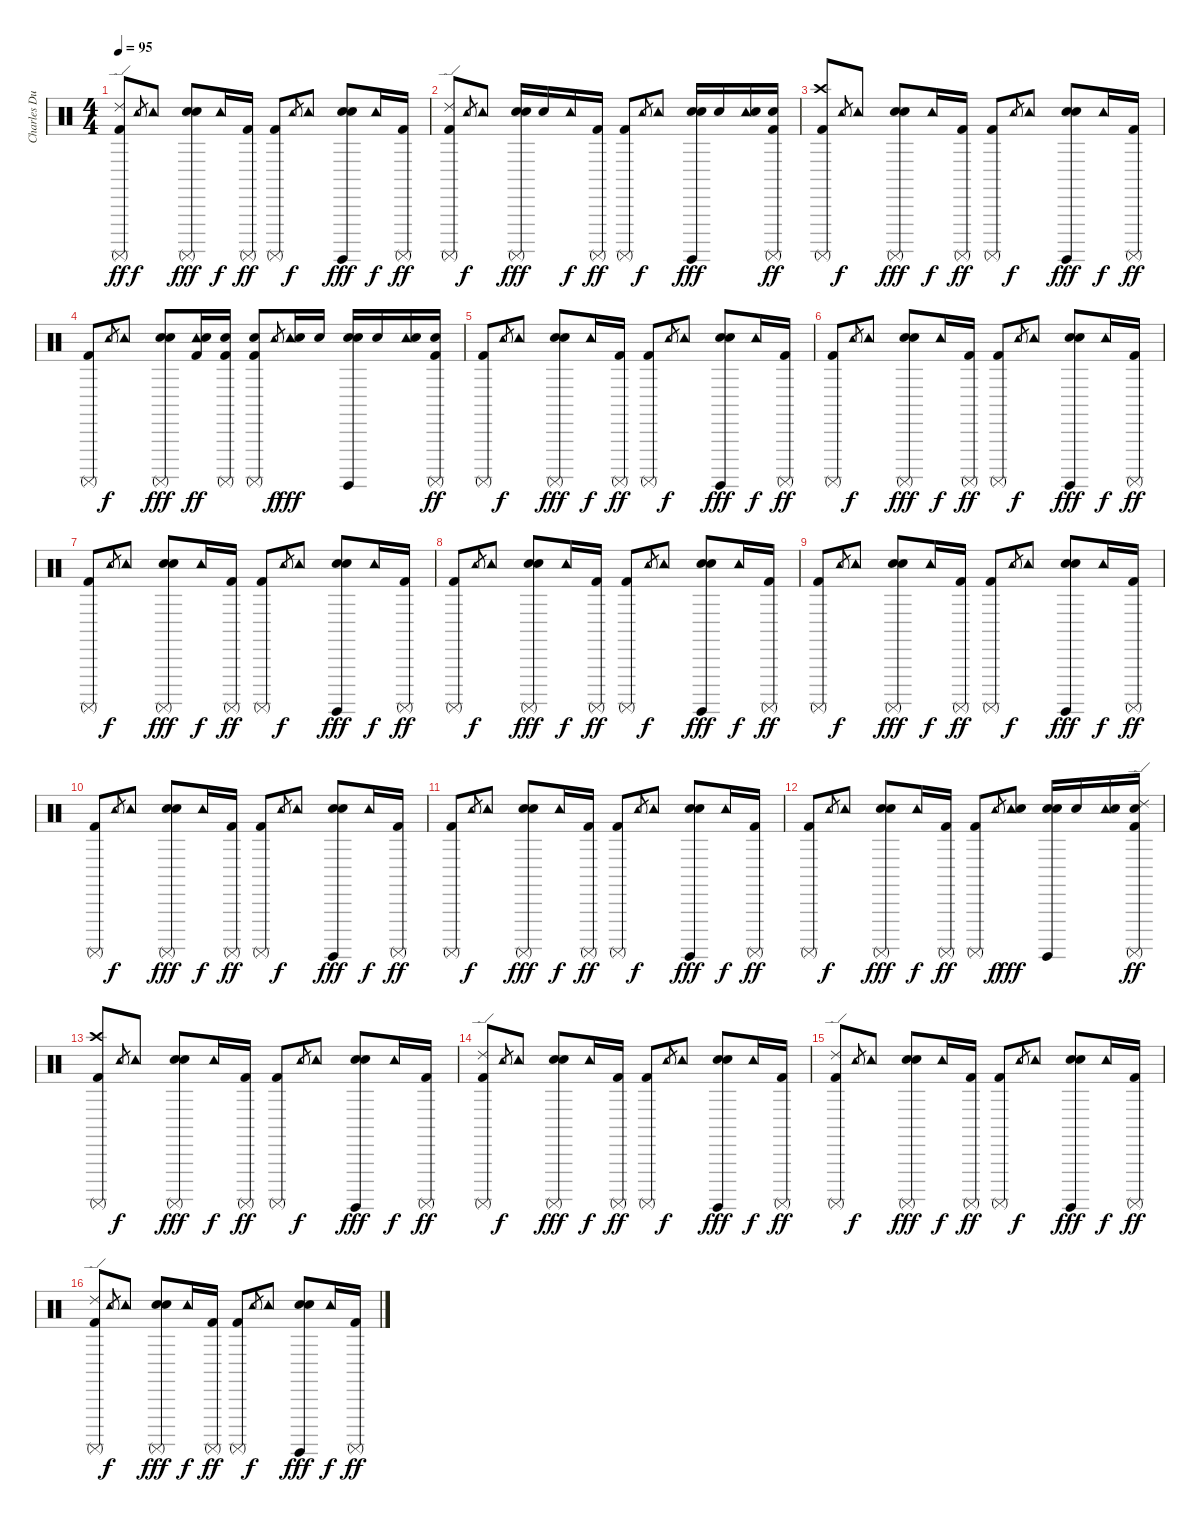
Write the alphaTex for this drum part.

\track ("Charles Dubreuil - Batterie" "Charles Du") {instrument percussion}
\staff {score}
\articulation defaults
\ts (4 4)
\tempo 95
\clef neutral
\ks c
("Ride (edge) 2" "Surdo (mute)" "Kick (hit) 2").8{dy ff} "Tambourine (hit)".8{gr dy f} "Tambourine (hit)".8 ("Hand Clap (hit)" "Electric Snare (hit)" "Surdo (mute)").8{dy fff} "Tambourine (hit)".16{dy f} ("Surdo (mute)" "Kick (hit) 2").16{dy ff} ("Surdo (mute)" "Kick (hit) 2").8 "Tambourine (hit)".8{gr dy f} "Tambourine (hit)".8 ("Hand Clap (hit)" "Electric Snare (hit)" "Surdo (hit)").8{dy fff} "Tambourine (hit)".16{dy f} ("Surdo (mute)" "Kick (hit) 2").16{dy ff} |
("Ride (edge) 2" "Surdo (mute)" "Kick (hit) 2").8 "Tambourine (hit)".8{gr dy f} "Tambourine (hit)".8 ("Hand Clap (hit)" "Electric Snare (hit)" "Surdo (mute)").16{dy fff} "Electric Snare (hit)".16 "Tambourine (hit)".16{dy f} ("Surdo (mute)" "Kick (hit) 2").16{dy ff} ("Surdo (mute)" "Kick (hit) 2").8 "Tambourine (hit)".8{gr dy f} "Tambourine (hit)".8 ("Hand Clap (hit)" "Electric Snare (hit)" "Surdo (hit)").16{dy fff} "Electric Snare (hit)".16 ("Tambourine (hit)" "Electric Snare (hit)").16 ("Electric Snare (hit)" "Surdo (mute)" "Kick (hit) 2").16{dy ff} |
("Crash high (hit)" "Surdo (mute)" "Kick (hit) 2").8 "Tambourine (hit)".8{gr dy f} "Tambourine (hit)".8 ("Hand Clap (hit)" "Electric Snare (hit)" "Surdo (mute)").8{dy fff} "Tambourine (hit)".16{dy f} ("Surdo (mute)" "Kick (hit) 2").16{dy ff} ("Surdo (mute)" "Kick (hit) 2").8 "Tambourine (hit)".8{gr dy f} "Tambourine (hit)".8 ("Hand Clap (hit)" "Electric Snare (hit)" "Surdo (hit)").8{dy fff} "Tambourine (hit)".16{dy f} ("Surdo (mute)" "Kick (hit) 2").16{dy ff} |
("Surdo (mute)" "Kick (hit) 2").8 "Tambourine (hit)".8{gr dy f} "Tambourine (hit)".8 ("Hand Clap (hit)" "Electric Snare (hit)" "Surdo (mute)").8{dy fff} ("Tambourine (hit)" "Electric Snare (hit)" "Kick (hit) 2").16{dy ff} ("Electric Snare (hit)" "Surdo (mute)" "Kick (hit) 2").16 ("Electric Snare (hit)" "Surdo (mute)" "Kick (hit) 2").8 "Tambourine (hit)".8{gr dy f} ("Tambourine (hit)" "Electric Snare (hit)").16{dy fff} "Electric Snare (hit)".16 ("Hand Clap (hit)" "Electric Snare (hit)" "Surdo (hit)").16 "Electric Snare (hit)".16 ("Tambourine (hit)" "Electric Snare (hit)").16 ("Electric Snare (hit)" "Surdo (mute)" "Kick (hit) 2").16{dy ff} |
("Surdo (mute)" "Kick (hit) 2").8 "Tambourine (hit)".8{gr dy f} "Tambourine (hit)".8 ("Hand Clap (hit)" "Electric Snare (hit)" "Surdo (mute)").8{dy fff} "Tambourine (hit)".16{dy f} ("Surdo (mute)" "Kick (hit) 2").16{dy ff} ("Surdo (mute)" "Kick (hit) 2").8 "Tambourine (hit)".8{gr dy f} "Tambourine (hit)".8 ("Hand Clap (hit)" "Electric Snare (hit)" "Surdo (hit)").8{dy fff} "Tambourine (hit)".16{dy f} ("Surdo (mute)" "Kick (hit) 2").16{dy ff} |
("Surdo (mute)" "Kick (hit) 2").8 "Tambourine (hit)".8{gr dy f} "Tambourine (hit)".8 ("Hand Clap (hit)" "Electric Snare (hit)" "Surdo (mute)").8{dy fff} "Tambourine (hit)".16{dy f} ("Surdo (mute)" "Kick (hit) 2").16{dy ff} ("Surdo (mute)" "Kick (hit) 2").8 "Tambourine (hit)".8{gr dy f} "Tambourine (hit)".8 ("Hand Clap (hit)" "Electric Snare (hit)" "Surdo (hit)").8{dy fff} "Tambourine (hit)".16{dy f} ("Surdo (mute)" "Kick (hit) 2").16{dy ff} |
("Surdo (mute)" "Kick (hit) 2").8 "Tambourine (hit)".8{gr dy f} "Tambourine (hit)".8 ("Hand Clap (hit)" "Electric Snare (hit)" "Surdo (mute)").8{dy fff} "Tambourine (hit)".16{dy f} ("Surdo (mute)" "Kick (hit) 2").16{dy ff} ("Surdo (mute)" "Kick (hit) 2").8 "Tambourine (hit)".8{gr dy f} "Tambourine (hit)".8 ("Hand Clap (hit)" "Electric Snare (hit)" "Surdo (hit)").8{dy fff} "Tambourine (hit)".16{dy f} ("Surdo (mute)" "Kick (hit) 2").16{dy ff} |
("Surdo (mute)" "Kick (hit) 2").8 "Tambourine (hit)".8{gr dy f} "Tambourine (hit)".8 ("Hand Clap (hit)" "Electric Snare (hit)" "Surdo (mute)").8{dy fff} "Tambourine (hit)".16{dy f} ("Surdo (mute)" "Kick (hit) 2").16{dy ff} ("Surdo (mute)" "Kick (hit) 2").8 "Tambourine (hit)".8{gr dy f} "Tambourine (hit)".8 ("Hand Clap (hit)" "Electric Snare (hit)" "Surdo (hit)").8{dy fff} "Tambourine (hit)".16{dy f} ("Surdo (mute)" "Kick (hit) 2").16{dy ff} |
("Surdo (mute)" "Kick (hit) 2").8 "Tambourine (hit)".8{gr dy f} "Tambourine (hit)".8 ("Hand Clap (hit)" "Electric Snare (hit)" "Surdo (mute)").8{dy fff} "Tambourine (hit)".16{dy f} ("Surdo (mute)" "Kick (hit) 2").16{dy ff} ("Surdo (mute)" "Kick (hit) 2").8 "Tambourine (hit)".8{gr dy f} "Tambourine (hit)".8 ("Hand Clap (hit)" "Electric Snare (hit)" "Surdo (hit)").8{dy fff} "Tambourine (hit)".16{dy f} ("Surdo (mute)" "Kick (hit) 2").16{dy ff} |
("Surdo (mute)" "Kick (hit) 2").8 "Tambourine (hit)".8{gr dy f} "Tambourine (hit)".8 ("Hand Clap (hit)" "Electric Snare (hit)" "Surdo (mute)").8{dy fff} "Tambourine (hit)".16{dy f} ("Surdo (mute)" "Kick (hit) 2").16{dy ff} ("Surdo (mute)" "Kick (hit) 2").8 "Tambourine (hit)".8{gr dy f} "Tambourine (hit)".8 ("Hand Clap (hit)" "Electric Snare (hit)" "Surdo (hit)").8{dy fff} "Tambourine (hit)".16{dy f} ("Surdo (mute)" "Kick (hit) 2").16{dy ff} |
("Surdo (mute)" "Kick (hit) 2").8 "Tambourine (hit)".8{gr dy f} "Tambourine (hit)".8 ("Hand Clap (hit)" "Electric Snare (hit)" "Surdo (mute)").8{dy fff} "Tambourine (hit)".16{dy f} ("Surdo (mute)" "Kick (hit) 2").16{dy ff} ("Surdo (mute)" "Kick (hit) 2").8 "Tambourine (hit)".8{gr dy f} "Tambourine (hit)".8 ("Hand Clap (hit)" "Electric Snare (hit)" "Surdo (hit)").8{dy fff} "Tambourine (hit)".16{dy f} ("Surdo (mute)" "Kick (hit) 2").16{dy ff} |
("Surdo (mute)" "Kick (hit) 2").8 "Tambourine (hit)".8{gr dy f} "Tambourine (hit)".8 ("Hand Clap (hit)" "Electric Snare (hit)" "Surdo (mute)").8{dy fff} "Tambourine (hit)".16{dy f} ("Surdo (mute)" "Kick (hit) 2").16{dy ff} ("Surdo (mute)" "Kick (hit) 2").8 "Tambourine (hit)".8{gr dy f} ("Tambourine (hit)" "Electric Snare (hit)").8{dy fff} ("Hand Clap (hit)" "Electric Snare (hit)" "Surdo (hit)").16 "Electric Snare (hit)".16 ("Tambourine (hit)" "Electric Snare (hit)").16 ("Ride (edge) 2" "Electric Snare (hit)" "Surdo (mute)" "Kick (hit) 2").16{dy ff} |
("Crash high (hit)" "Surdo (mute)" "Kick (hit) 2").8 "Tambourine (hit)".8{gr dy f} "Tambourine (hit)".8 ("Hand Clap (hit)" "Electric Snare (hit)" "Surdo (mute)").8{dy fff} "Tambourine (hit)".16{dy f} ("Surdo (mute)" "Kick (hit) 2").16{dy ff} ("Surdo (mute)" "Kick (hit) 2").8 "Tambourine (hit)".8{gr dy f} "Tambourine (hit)".8 ("Hand Clap (hit)" "Electric Snare (hit)" "Surdo (hit)").8{dy fff} "Tambourine (hit)".16{dy f} ("Surdo (mute)" "Kick (hit) 2").16{dy ff} |
("Ride (edge) 2" "Surdo (mute)" "Kick (hit) 2").8 "Tambourine (hit)".8{gr dy f} "Tambourine (hit)".8 ("Hand Clap (hit)" "Electric Snare (hit)" "Surdo (mute)").8{dy fff} "Tambourine (hit)".16{dy f} ("Surdo (mute)" "Kick (hit) 2").16{dy ff} ("Surdo (mute)" "Kick (hit) 2").8 "Tambourine (hit)".8{gr dy f} "Tambourine (hit)".8 ("Hand Clap (hit)" "Electric Snare (hit)" "Surdo (hit)").8{dy fff} "Tambourine (hit)".16{dy f} ("Surdo (mute)" "Kick (hit) 2").16{dy ff} |
("Ride (edge) 2" "Surdo (mute)" "Kick (hit) 2").8 "Tambourine (hit)".8{gr dy f} "Tambourine (hit)".8 ("Hand Clap (hit)" "Electric Snare (hit)" "Surdo (mute)").8{dy fff} "Tambourine (hit)".16{dy f} ("Surdo (mute)" "Kick (hit) 2").16{dy ff} ("Surdo (mute)" "Kick (hit) 2").8 "Tambourine (hit)".8{gr dy f} "Tambourine (hit)".8 ("Hand Clap (hit)" "Electric Snare (hit)" "Surdo (hit)").8{dy fff} "Tambourine (hit)".16{dy f} ("Surdo (mute)" "Kick (hit) 2").16{dy ff} |
("Ride (edge) 2" "Surdo (mute)" "Kick (hit) 2").8 "Tambourine (hit)".8{gr dy f} "Tambourine (hit)".8 ("Hand Clap (hit)" "Electric Snare (hit)" "Surdo (mute)").8{dy fff} "Tambourine (hit)".16{dy f} ("Surdo (mute)" "Kick (hit) 2").16{dy ff} ("Surdo (mute)" "Kick (hit) 2").8 "Tambourine (hit)".8{gr dy f} "Tambourine (hit)".8 ("Hand Clap (hit)" "Electric Snare (hit)" "Surdo (hit)").8{dy fff} "Tambourine (hit)".16{dy f} ("Surdo (mute)" "Kick (hit) 2").16{dy ff}
